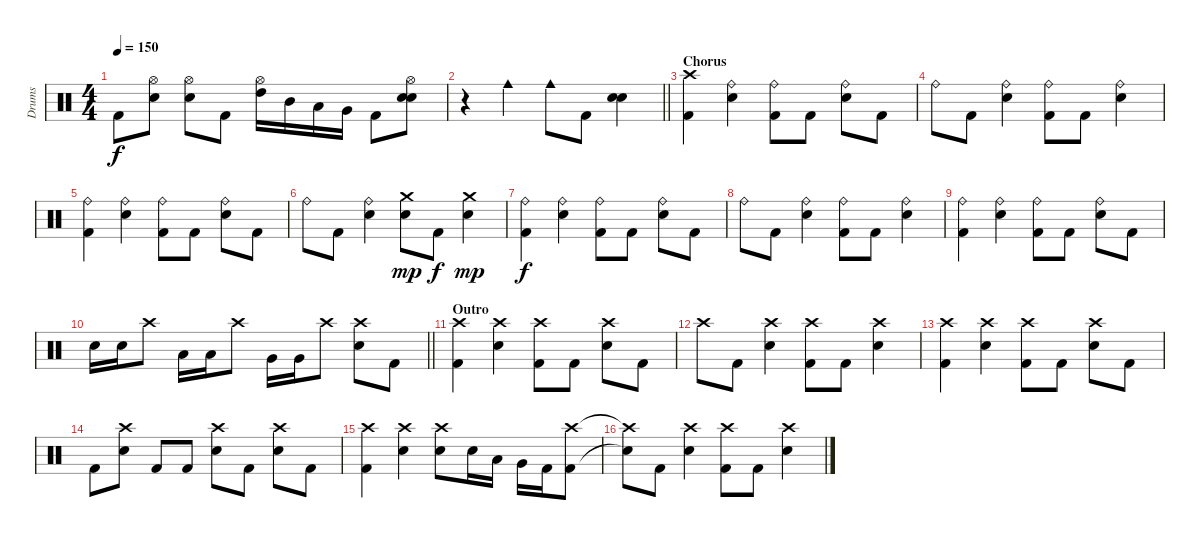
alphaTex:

\track ("Drums" "Drums") {instrument percussion}
\staff {score}
\articulation defaults
\ts (4 4)
\tempo 150
\clef neutral
\ks c "Kick (hit) 2".8{dy f}
("Hi-Hat (open)" "Snare (hit) 2").8 ("Hi-Hat (open)" "Snare (hit) 2").8 "Kick (hit) 2".8 ("Hi-Hat (open)" "High Tom (hit)").16 "Mid Tom (hit)".16 "Low Tom (hit)".16 "Very Low Tom (hit)".16 "Kick (hit) 2".8 ("Hi-Hat (open)" "Snare (hit) 2" "Snare (hit) 2").8 |
\barLineRight lightlight
r.4{volume 0} "Cowbell medium (hit)".4{volume 13} "Cowbell medium (hit)".8 "Kick (hit) 2".8 ("Snare (hit) 2" "Snare (hit) 2").4 |
\section ("" "Chorus")
("Crash high (hit)" "Kick (hit) 2").4 ("Ride (bell)" "Snare (hit) 2").4 ("Ride (bell)" "Kick (hit) 2").8 "Kick (hit) 2".8 ("Ride (bell)" "Snare (hit) 2").8 "Kick (hit) 2".8 |
"Ride (bell)".8 "Kick (hit) 2".8 ("Ride (bell)" "Snare (hit) 2").4 ("Ride (bell)" "Kick (hit) 2").8 "Kick (hit) 2".8 ("Ride (bell)" "Snare (hit) 2").4 |
("Ride (bell)" "Kick (hit) 2").4 ("Ride (bell)" "Snare (hit) 2").4 ("Ride (bell)" "Kick (hit) 2").8 "Kick (hit) 2".8 ("Ride (bell)" "Snare (hit) 2").8 "Kick (hit) 2".8 |
"Ride (bell)".8 "Kick (hit) 2".8 ("Ride (bell)" "Snare (hit) 2").4 ("Crash medium (hit)" "Snare (hit) 2").8{dy mp} "Kick (hit) 2".8{dy f} ("Crash medium (hit)" "Snare (hit) 2").4{dy mp} |
("Ride (bell)" "Kick (hit) 2").4{dy f} ("Ride (bell)" "Snare (hit) 2").4 ("Ride (bell)" "Kick (hit) 2").8 "Kick (hit) 2".8 ("Ride (bell)" "Snare (hit) 2").8 "Kick (hit) 2".8 |
"Ride (bell)".8 "Kick (hit) 2".8 ("Ride (bell)" "Snare (hit) 2").4 ("Ride (bell)" "Kick (hit) 2").8 "Kick (hit) 2".8 ("Ride (bell)" "Snare (hit) 2").4 |
("Ride (bell)" "Kick (hit) 2").4 ("Ride (bell)" "Snare (hit) 2").4 ("Ride (bell)" "Kick (hit) 2").8 "Kick (hit) 2".8 ("Ride (bell)" "Snare (hit) 2").8 "Kick (hit) 2".8 |
\barLineRight lightlight "Snare (hit) 2".16 "Snare (hit) 2".16 "Crash high (hit)".8 "Low Tom (hit)".16 "Low Tom (hit)".16 "Crash high (hit)".8 "Very Low Tom (hit)".16 "Very Low Tom (hit)".16 "Crash high (hit)".8
("Crash high (hit)" "Snare (hit) 2").8 "Kick (hit) 2".8 |
\section ("" "Outro")
("Crash high (hit)" "Kick (hit) 2").4 ("Crash high (hit)" "Snare (hit) 2").4 ("Crash high (hit)" "Kick (hit) 2").8 "Kick (hit) 2".8 ("Crash high (hit)" "Snare (hit) 2").8 "Kick (hit) 2".8 |
"Crash high (hit)".8 "Kick (hit) 2".8 ("Crash high (hit)" "Snare (hit) 2").4 ("Crash high (hit)" "Kick (hit) 2").8 "Kick (hit) 2".8 ("Crash high (hit)" "Snare (hit) 2").4 |
("Crash high (hit)" "Kick (hit) 2").4 ("Crash high (hit)" "Snare (hit) 2").4 ("Crash high (hit)" "Kick (hit) 2").8 "Kick (hit) 2".8 ("Crash high (hit)" "Snare (hit) 2").8 "Kick (hit) 2".8 |
"Kick (hit) 2".8 ("Crash high (hit)" "Snare (hit) 2").8 "Kick (hit) 2".8 "Kick (hit) 2".8 ("Crash high (hit)" "Snare (hit) 2").8 "Kick (hit) 2".8 ("Crash high (hit)" "Snare (hit) 2").8 "Kick (hit) 2".8 |
("Crash high (hit)" "Kick (hit) 2").4 ("Crash high (hit)" "Snare (hit) 2").4 ("Crash high (hit)" "Snare (hit) 2").8 "Snare (hit) 2".16 "Low Tom (hit)".16 "Very Low Tom (hit)".16 "Kick (hit) 2".16 ("Crash high (hit)" "Kick (hit) 2").8 |
("Crash high (hit)"{t} "Snare (hit)"{t}).8 "Kick (hit) 2".8 ("Crash high (hit)" "Snare (hit) 2").4 ("Crash high (hit)" "Kick (hit) 2").8 "Kick (hit) 2".8 ("Crash high (hit)" "Snare (hit) 2").4
